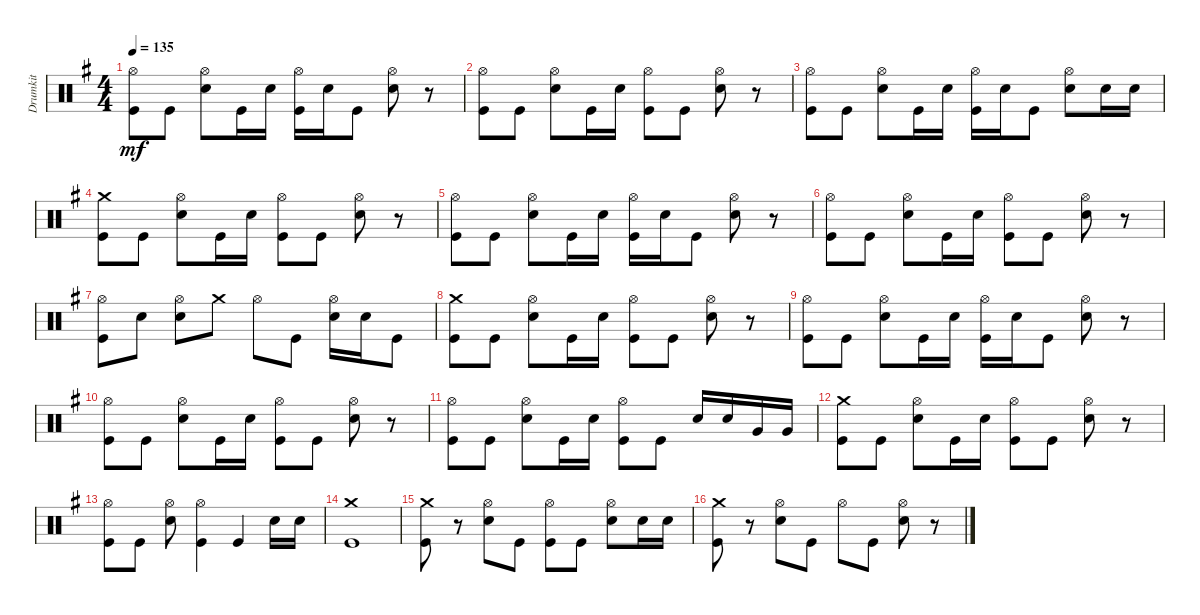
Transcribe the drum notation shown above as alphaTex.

\track ("Drumkit" "Drumkit") {instrument percussion}
\staff {score}
\articulation defaults
\ts (4 4)
\tempo 135
\clef neutral
\ks g
("Hi-Hat (open)" "Kick (hit)").8{dy mf} "Kick (hit)".8 ("Hi-Hat (open)" "Snare (hit) 2").8 "Kick (hit)".16 "Snare (hit) 2".16 ("Hi-Hat (open)" "Kick (hit)").16 "Snare (hit) 2".16 "Kick (hit)".8 ("Hi-Hat (open)" "Snare (hit) 2").8 r.8 |
("Kick (hit)" "Hi-Hat (open)").8 "Kick (hit)".8 ("Hi-Hat (open)" "Snare (hit) 2").8 "Kick (hit)".16 "Snare (hit) 2".16 ("Hi-Hat (open)" "Kick (hit)").8 "Kick (hit)".8 ("Hi-Hat (open)" "Snare (hit) 2").8 r.8 |
("Hi-Hat (open)" "Kick (hit)").8 "Kick (hit)".8 ("Hi-Hat (open)" "Snare (hit) 2").8 "Kick (hit)".16 "Snare (hit) 2".16 ("Hi-Hat (open)" "Kick (hit)").16 "Snare (hit) 2".16 "Kick (hit)".8 ("Hi-Hat (open)" "Snare (hit) 2").8 "Snare (hit) 2".16 "Snare (hit) 2".16 |
("Kick (hit)" "Crash medium (hit)").8 "Kick (hit)".8 ("Hi-Hat (open)" "Snare (hit) 2").8 "Kick (hit)".16 "Snare (hit) 2".16 ("Hi-Hat (open)" "Kick (hit)").8 "Kick (hit)".8 ("Hi-Hat (open)" "Snare (hit) 2").8 r.8 |
("Hi-Hat (open)" "Kick (hit)").8 "Kick (hit)".8 ("Hi-Hat (open)" "Snare (hit) 2").8 "Kick (hit)".16 "Snare (hit) 2".16 ("Hi-Hat (open)" "Kick (hit)").16 "Snare (hit) 2".16 "Kick (hit)".8 ("Hi-Hat (open)" "Snare (hit) 2").8 r.8 |
("Kick (hit)" "Hi-Hat (open)").8 "Kick (hit)".8 ("Hi-Hat (open)" "Snare (hit) 2").8 "Kick (hit)".16 "Snare (hit) 2".16 ("Hi-Hat (open)" "Kick (hit)").8 "Kick (hit)".8 ("Hi-Hat (open)" "Snare (hit) 2").8 r.8 |
("Kick (hit)" "Hi-Hat (open)").8 "Snare (hit) 2".8 ("Snare (hit) 2" "Hi-Hat (open)").8 "Crash medium (hit)".8 "Hi-Hat (open)".8 "Kick (hit)".8 ("Snare (hit) 2" "Hi-Hat (open)").16 "Snare (hit) 2".16 "Kick (hit)".8 |
("Kick (hit)" "Crash medium (hit)").8 "Kick (hit)".8 ("Hi-Hat (open)" "Snare (hit) 2").8 "Kick (hit)".16 "Snare (hit) 2".16 ("Hi-Hat (open)" "Kick (hit)").8 "Kick (hit)".8 ("Hi-Hat (open)" "Snare (hit) 2").8 r.8 |
("Hi-Hat (open)" "Kick (hit)").8 "Kick (hit)".8 ("Hi-Hat (open)" "Snare (hit) 2").8 "Kick (hit)".16 "Snare (hit) 2".16 ("Hi-Hat (open)" "Kick (hit)").16 "Snare (hit) 2".16 "Kick (hit)".8 ("Hi-Hat (open)" "Snare (hit) 2").8 r.8 |
("Kick (hit)" "Hi-Hat (open)").8 "Kick (hit)".8 ("Hi-Hat (open)" "Snare (hit) 2").8 "Kick (hit)".16 "Snare (hit) 2".16 ("Hi-Hat (open)" "Kick (hit)").8 "Kick (hit)".8 ("Hi-Hat (open)" "Snare (hit) 2").8 r.8 |
("Kick (hit)" "Hi-Hat (open)").8 "Kick (hit)".8 ("Hi-Hat (open)" "Snare (hit) 2").8 "Kick (hit)".16 "Snare (hit) 2".16 ("Hi-Hat (open)" "Kick (hit)").8 "Kick (hit)".8 "Snare (hit) 2".16 "Snare (hit) 2".16 "Very Low Tom (hit)".16 "Very Low Tom (hit)".16 |
("Kick (hit)" "Crash medium (hit)").8 "Kick (hit)".8 ("Hi-Hat (open)" "Snare (hit) 2").8 "Kick (hit)".16 "Snare (hit) 2".16 ("Hi-Hat (open)" "Kick (hit)").8 "Kick (hit)".8 ("Hi-Hat (open)" "Snare (hit) 2").8 r.8 |
("Hi-Hat (open)" "Kick (hit)").8 "Kick (hit)".8 ("Hi-Hat (open)" "Snare (hit) 2").8 ("Hi-Hat (open)" "Kick (hit)").4 "Kick (hit)".4 "Snare (hit) 2".16 "Snare (hit) 2".16 |
("Kick (hit)" "Crash medium (hit)").1 |
("Kick (hit)" "Crash medium (hit)").8 r.8 ("Hi-Hat (open)" "Snare (hit) 2").8 "Kick (hit)".8 ("Hi-Hat (open)" "Kick (hit)").8 "Kick (hit)".8 ("Hi-Hat (open)" "Snare (hit) 2").8 "Snare (hit) 2".16 "Snare (hit) 2".16 |
("Kick (hit)" "Crash medium (hit)").8 r.8 ("Hi-Hat (open)" "Snare (hit) 2").8 "Kick (hit)".8 "Hi-Hat (open)".8 "Kick (hit)".8 ("Hi-Hat (open)" "Snare (hit) 2").8 r.8
